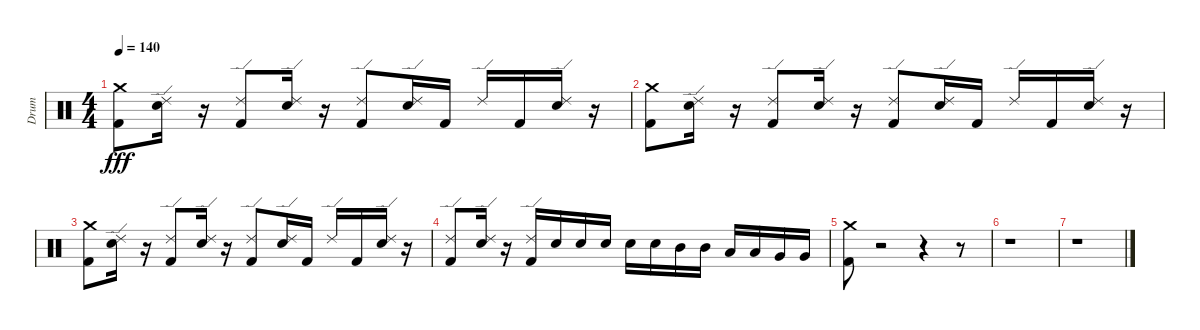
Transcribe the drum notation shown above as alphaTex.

\track ("Drum" "Drum") {instrument percussion}
\staff {score}
\articulation defaults
\ts (4 4)
\tempo 140
\clef neutral
\ks c
("Kick (hit) 2" "Crash medium (hit)").8{dy fff} ("Snare (hit) 2" "Ride (edge) 2").16 r.16 ("Kick (hit) 2" "Ride (edge) 2").8 ("Snare (hit) 2" "Ride (edge) 2").16 r.16 ("Kick (hit) 2" "Ride (edge) 2").8 ("Snare (hit) 2" "Ride (edge) 2").16 "Kick (hit) 2".16 "Ride (edge) 2".16 "Kick (hit) 2".16 ("Snare (hit) 2" "Ride (edge) 2").16 r.16 |
("Kick (hit) 2" "Crash medium (hit)").8 ("Snare (hit) 2" "Ride (edge) 2").16 r.16 ("Kick (hit) 2" "Ride (edge) 2").8 ("Snare (hit) 2" "Ride (edge) 2").16 r.16 ("Kick (hit) 2" "Ride (edge) 2").8 ("Snare (hit) 2" "Ride (edge) 2").16 "Kick (hit) 2".16 "Ride (edge) 2".16 "Kick (hit) 2".16 ("Snare (hit) 2" "Ride (edge) 2").16 r.16 |
("Kick (hit) 2" "Crash medium (hit)").8 ("Snare (hit) 2" "Ride (edge) 2").16 r.16 ("Kick (hit) 2" "Ride (edge) 2").8 ("Snare (hit) 2" "Ride (edge) 2").16 r.16 ("Kick (hit) 2" "Ride (edge) 2").8 ("Snare (hit) 2" "Ride (edge) 2").16 "Kick (hit) 2".16 "Ride (edge) 2".16 "Kick (hit) 2".16 ("Snare (hit) 2" "Ride (edge) 2").16 r.16 |
("Kick (hit) 2" "Ride (edge) 2").8 ("Snare (hit) 2" "Ride (edge) 2").16 r.16 ("Kick (hit) 2" "Ride (edge) 2").16 "Snare (hit) 2".16 "Snare (hit) 2".16 "Snare (hit) 2".16 "Snare (hit) 2".16 "Snare (hit) 2".16 "Mid Tom (hit)".16 "Mid Tom (hit)".16 "Low Tom (hit)".16 "Low Tom (hit)".16 "Very Low Tom (hit)".16 "Very Low Tom (hit)".16 |
("Kick (hit) 2" "Crash medium (hit)").8 r.2 r.4 r.8 |
r.1 |
r.1
